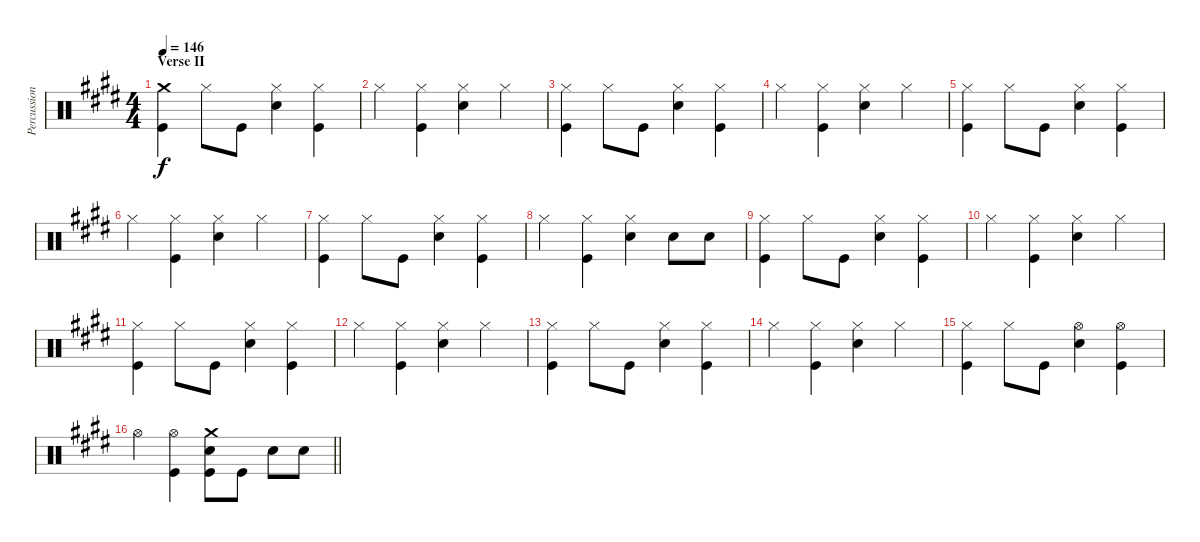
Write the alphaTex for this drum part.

\track ("Percussion" "Percussion") {instrument percussion}
\staff {score}
\articulation defaults
\ts (4 4)
\section ("" "Verse II")
\tempo 146
\clef neutral
\ks e
("Crash medium (hit)" "Kick (hit)").4{dy f} "Hi-Hat (closed)".8 "Kick (hit)".8 ("Hi-Hat (closed)" "Electric Snare (hit)").4 ("Hi-Hat (closed)" "Kick (hit)").4 |
"Hi-Hat (closed)".4 ("Hi-Hat (closed)" "Kick (hit)").4 ("Hi-Hat (closed)" "Electric Snare (hit)").4 "Hi-Hat (closed)".4 |
("Hi-Hat (closed)" "Kick (hit)").4 "Hi-Hat (closed)".8 "Kick (hit)".8 ("Hi-Hat (closed)" "Electric Snare (hit)").4 ("Hi-Hat (closed)" "Kick (hit)").4 |
"Hi-Hat (closed)".4 ("Hi-Hat (closed)" "Kick (hit)").4 ("Hi-Hat (closed)" "Electric Snare (hit)").4 "Hi-Hat (closed)".4 |
("Hi-Hat (closed)" "Kick (hit)").4 "Hi-Hat (closed)".8 "Kick (hit)".8 ("Hi-Hat (closed)" "Electric Snare (hit)").4 ("Hi-Hat (closed)" "Kick (hit)").4 |
"Hi-Hat (closed)".4 ("Hi-Hat (closed)" "Kick (hit)").4 ("Hi-Hat (closed)" "Electric Snare (hit)").4 "Hi-Hat (closed)".4 |
("Hi-Hat (closed)" "Kick (hit)").4 "Hi-Hat (closed)".8 "Kick (hit)".8 ("Hi-Hat (closed)" "Electric Snare (hit)").4 ("Hi-Hat (closed)" "Kick (hit)").4 |
"Hi-Hat (closed)".4 ("Hi-Hat (closed)" "Kick (hit)").4 ("Hi-Hat (closed)" "Electric Snare (hit)").4 "Electric Snare (hit)".8 "Electric Snare (hit)".8 |
("Hi-Hat (closed)" "Kick (hit)").4 "Hi-Hat (closed)".8 "Kick (hit)".8 ("Hi-Hat (closed)" "Electric Snare (hit)").4 ("Hi-Hat (closed)" "Kick (hit)").4 |
"Hi-Hat (closed)".4 ("Hi-Hat (closed)" "Kick (hit)").4 ("Hi-Hat (closed)" "Electric Snare (hit)").4 "Hi-Hat (closed)".4 |
("Hi-Hat (closed)" "Kick (hit)").4 "Hi-Hat (closed)".8 "Kick (hit)".8 ("Hi-Hat (closed)" "Electric Snare (hit)").4 ("Hi-Hat (closed)" "Kick (hit)").4 |
"Hi-Hat (closed)".4 ("Hi-Hat (closed)" "Kick (hit)").4 ("Hi-Hat (closed)" "Electric Snare (hit)").4 "Hi-Hat (closed)".4 |
("Hi-Hat (closed)" "Kick (hit)").4 "Hi-Hat (closed)".8 "Kick (hit)".8 ("Hi-Hat (closed)" "Electric Snare (hit)").4 ("Hi-Hat (closed)" "Kick (hit)").4 |
"Hi-Hat (closed)".4 ("Hi-Hat (closed)" "Kick (hit)").4 ("Hi-Hat (closed)" "Electric Snare (hit)").4 "Hi-Hat (closed)".4 |
("Hi-Hat (closed)" "Kick (hit)").4 "Hi-Hat (closed)".8 "Kick (hit)".8 ("Hi-Hat (open)" "Electric Snare (hit)").4 ("Hi-Hat (open)" "Kick (hit)").4 |
\barLineRight lightlight "Hi-Hat (open)".4
("Hi-Hat (open)" "Kick (hit)").4 ("Crash medium (hit)" "Electric Snare (hit)" "Kick (hit)").8 "Kick (hit)".8 "Electric Snare (hit)".8 "Electric Snare (hit)".8
